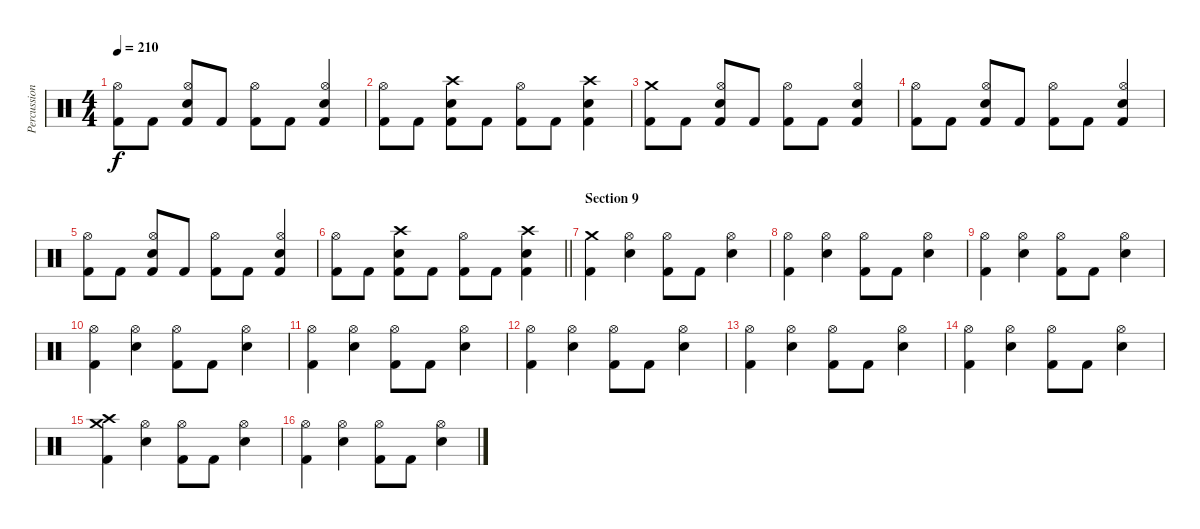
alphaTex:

\track ("Percussion" "Percussion") {instrument percussion}
\staff {score}
\articulation defaults
\ts (4 4)
\tempo 210
\clef neutral
\ks c
("Kick (hit) 2" "Hi-Hat (open)").8{dy f} "Kick (hit) 2".8 ("Kick (hit) 2" "Hi-Hat (open)" "Electric Snare (hit)").8 "Kick (hit) 2".8 ("Kick (hit) 2" "Hi-Hat (open)").8 "Kick (hit) 2".8 ("Kick (hit) 2" "Hi-Hat (open)" "Electric Snare (hit)").4 |
("Kick (hit) 2" "Hi-Hat (open)").8 "Kick (hit) 2".8 ("Kick (hit) 2" "Electric Snare (hit)" "Crash high (hit)").8 "Kick (hit) 2".8 ("Kick (hit) 2" "Hi-Hat (open)").8 "Kick (hit) 2".8 ("Kick (hit) 2" "Electric Snare (hit)" "Crash high (hit)").4 |
("Kick (hit) 2" "Crash medium (hit)").8 "Kick (hit) 2".8 ("Kick (hit) 2" "Hi-Hat (open)" "Electric Snare (hit)").8 "Kick (hit) 2".8 ("Kick (hit) 2" "Hi-Hat (open)").8 "Kick (hit) 2".8 ("Kick (hit) 2" "Hi-Hat (open)" "Electric Snare (hit)").4 |
("Kick (hit) 2" "Hi-Hat (open)").8 "Kick (hit) 2".8 ("Kick (hit) 2" "Hi-Hat (open)" "Electric Snare (hit)").8 "Kick (hit) 2".8 ("Kick (hit) 2" "Hi-Hat (open)").8 "Kick (hit) 2".8 ("Kick (hit) 2" "Hi-Hat (open)" "Electric Snare (hit)").4 |
("Kick (hit) 2" "Hi-Hat (open)").8 "Kick (hit) 2".8 ("Kick (hit) 2" "Hi-Hat (open)" "Electric Snare (hit)").8 "Kick (hit) 2".8 ("Kick (hit) 2" "Hi-Hat (open)").8 "Kick (hit) 2".8 ("Kick (hit) 2" "Hi-Hat (open)" "Electric Snare (hit)").4 |
\barLineRight lightlight
("Kick (hit) 2" "Hi-Hat (open)").8 "Kick (hit) 2".8 ("Kick (hit) 2" "Electric Snare (hit)" "Crash high (hit)").8 "Kick (hit) 2".8 ("Kick (hit) 2" "Hi-Hat (open)").8 "Kick (hit) 2".8 ("Kick (hit) 2" "Electric Snare (hit)" "Crash high (hit)").4 |
\section ("" "Section 9")
("Kick (hit) 2" "Crash medium (hit)").4 ("Electric Snare (hit)" "Hi-Hat (open)").4 ("Kick (hit) 2" "Hi-Hat (open)").8 "Kick (hit) 2".8 ("Electric Snare (hit)" "Hi-Hat (open)").4 |
("Kick (hit) 2" "Hi-Hat (open)").4 ("Electric Snare (hit)" "Hi-Hat (open)").4 ("Kick (hit) 2" "Hi-Hat (open)").8 "Kick (hit) 2".8 ("Electric Snare (hit)" "Hi-Hat (open)").4 |
("Kick (hit) 2" "Hi-Hat (open)").4 ("Electric Snare (hit)" "Hi-Hat (open)").4 ("Kick (hit) 2" "Hi-Hat (open)").8 "Kick (hit) 2".8 ("Electric Snare (hit)" "Hi-Hat (open)").4 |
("Kick (hit) 2" "Hi-Hat (open)").4 ("Electric Snare (hit)" "Hi-Hat (open)").4 ("Kick (hit) 2" "Hi-Hat (open)").8 "Kick (hit) 2".8 ("Electric Snare (hit)" "Hi-Hat (open)").4 |
("Kick (hit) 2" "Hi-Hat (open)").4 ("Electric Snare (hit)" "Hi-Hat (open)").4 ("Kick (hit) 2" "Hi-Hat (open)").8 "Kick (hit) 2".8 ("Electric Snare (hit)" "Hi-Hat (open)").4 |
("Kick (hit) 2" "Hi-Hat (open)").4 ("Electric Snare (hit)" "Hi-Hat (open)").4 ("Kick (hit) 2" "Hi-Hat (open)").8 "Kick (hit) 2".8 ("Electric Snare (hit)" "Hi-Hat (open)").4 |
("Kick (hit) 2" "Hi-Hat (open)").4 ("Electric Snare (hit)" "Hi-Hat (open)").4 ("Kick (hit) 2" "Hi-Hat (open)").8 "Kick (hit) 2".8 ("Electric Snare (hit)" "Hi-Hat (open)").4 |
("Kick (hit) 2" "Hi-Hat (open)").4 ("Electric Snare (hit)" "Hi-Hat (open)").4 ("Kick (hit) 2" "Hi-Hat (open)").8 "Kick (hit) 2".8 ("Electric Snare (hit)" "Hi-Hat (open)").4 |
("Kick (hit) 2" "Crash medium (hit)" "Crash high (hit)").4 ("Electric Snare (hit)" "Hi-Hat (open)").4 ("Kick (hit) 2" "Hi-Hat (open)").8 "Kick (hit) 2".8 ("Electric Snare (hit)" "Hi-Hat (open)").4 |
("Kick (hit) 2" "Hi-Hat (open)").4 ("Electric Snare (hit)" "Hi-Hat (open)").4 ("Kick (hit) 2" "Hi-Hat (open)").8 "Kick (hit) 2".8 ("Electric Snare (hit)" "Hi-Hat (open)").4
